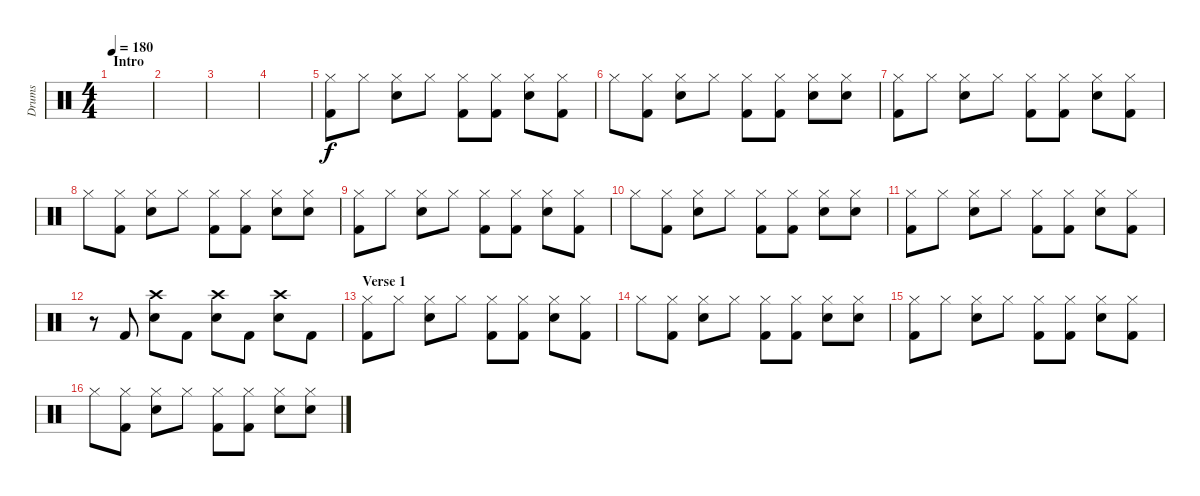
\track ("Drums" "Drums") {instrument percussion}
\staff {score}
\articulation defaults
\ts (4 4)
\section ("" "Intro")
\tempo 180
\clef neutral
\ks c
|
|
|
|
("Hi-Hat (closed)" "Kick (hit) 2").8 "Hi-Hat (closed)".8 ("Hi-Hat (closed)" "Snare (hit) 2").8 "Hi-Hat (closed)".8 ("Hi-Hat (closed)" "Kick (hit) 2").8 ("Hi-Hat (closed)" "Kick (hit) 2").8 ("Hi-Hat (closed)" "Snare (hit) 2").8 ("Hi-Hat (closed)" "Kick (hit) 2").8 |
"Hi-Hat (closed)".8 ("Hi-Hat (closed)" "Kick (hit) 2").8 ("Hi-Hat (closed)" "Snare (hit) 2").8 "Hi-Hat (closed)".8 ("Hi-Hat (closed)" "Kick (hit) 2").8 ("Hi-Hat (closed)" "Kick (hit) 2").8 ("Hi-Hat (closed)" "Snare (hit) 2").8 ("Hi-Hat (closed)" "Snare (hit) 2").8 |
("Hi-Hat (closed)" "Kick (hit) 2").8 "Hi-Hat (closed)".8 ("Hi-Hat (closed)" "Snare (hit) 2").8 "Hi-Hat (closed)".8 ("Hi-Hat (closed)" "Kick (hit) 2").8 ("Hi-Hat (closed)" "Kick (hit) 2").8 ("Hi-Hat (closed)" "Snare (hit) 2").8 ("Hi-Hat (closed)" "Kick (hit) 2").8 |
"Hi-Hat (closed)".8 ("Hi-Hat (closed)" "Kick (hit) 2").8 ("Hi-Hat (closed)" "Snare (hit) 2").8 "Hi-Hat (closed)".8 ("Hi-Hat (closed)" "Kick (hit) 2").8 ("Hi-Hat (closed)" "Kick (hit) 2").8 ("Hi-Hat (closed)" "Snare (hit) 2").8 ("Hi-Hat (closed)" "Snare (hit) 2").8 |
("Hi-Hat (closed)" "Kick (hit) 2").8 "Hi-Hat (closed)".8 ("Hi-Hat (closed)" "Snare (hit) 2").8 "Hi-Hat (closed)".8 ("Hi-Hat (closed)" "Kick (hit) 2").8 ("Hi-Hat (closed)" "Kick (hit) 2").8 ("Hi-Hat (closed)" "Snare (hit) 2").8 ("Hi-Hat (closed)" "Kick (hit) 2").8 |
"Hi-Hat (closed)".8 ("Hi-Hat (closed)" "Kick (hit) 2").8 ("Hi-Hat (closed)" "Snare (hit) 2").8 "Hi-Hat (closed)".8 ("Hi-Hat (closed)" "Kick (hit) 2").8 ("Hi-Hat (closed)" "Kick (hit) 2").8 ("Hi-Hat (closed)" "Snare (hit) 2").8 ("Hi-Hat (closed)" "Snare (hit) 2").8 |
("Hi-Hat (closed)" "Kick (hit) 2").8 "Hi-Hat (closed)".8 ("Hi-Hat (closed)" "Snare (hit) 2").8 "Hi-Hat (closed)".8 ("Hi-Hat (closed)" "Kick (hit) 2").8 ("Hi-Hat (closed)" "Kick (hit) 2").8 ("Hi-Hat (closed)" "Snare (hit) 2").8 ("Hi-Hat (closed)" "Kick (hit) 2").8 |
r.8 "Kick (hit) 2".8 ("Crash high (hit)" "Snare (hit) 2").8 "Kick (hit) 2".8 ("Crash high (hit)" "Snare (hit) 2").8 "Kick (hit) 2".8 ("Crash high (hit)" "Snare (hit) 2").8 "Kick (hit) 2".8 |
\section ("" "Verse 1")
("Hi-Hat (closed)" "Kick (hit) 2").8 "Hi-Hat (closed)".8 ("Hi-Hat (closed)" "Snare (hit) 2").8 "Hi-Hat (closed)".8 ("Hi-Hat (closed)" "Kick (hit) 2").8 ("Hi-Hat (closed)" "Kick (hit) 2").8 ("Hi-Hat (closed)" "Snare (hit) 2").8 ("Hi-Hat (closed)" "Kick (hit) 2").8 |
"Hi-Hat (closed)".8 ("Hi-Hat (closed)" "Kick (hit) 2").8 ("Hi-Hat (closed)" "Snare (hit) 2").8 "Hi-Hat (closed)".8 ("Hi-Hat (closed)" "Kick (hit) 2").8 ("Hi-Hat (closed)" "Kick (hit) 2").8 ("Hi-Hat (closed)" "Snare (hit) 2").8 ("Hi-Hat (closed)" "Snare (hit) 2").8 |
("Hi-Hat (closed)" "Kick (hit) 2").8 "Hi-Hat (closed)".8 ("Hi-Hat (closed)" "Snare (hit) 2").8 "Hi-Hat (closed)".8 ("Hi-Hat (closed)" "Kick (hit) 2").8 ("Hi-Hat (closed)" "Kick (hit) 2").8 ("Hi-Hat (closed)" "Snare (hit) 2").8 ("Hi-Hat (closed)" "Kick (hit) 2").8 |
"Hi-Hat (closed)".8 ("Hi-Hat (closed)" "Kick (hit) 2").8 ("Hi-Hat (closed)" "Snare (hit) 2").8 "Hi-Hat (closed)".8 ("Hi-Hat (closed)" "Kick (hit) 2").8 ("Hi-Hat (closed)" "Kick (hit) 2").8 ("Hi-Hat (closed)" "Snare (hit) 2").8 ("Hi-Hat (closed)" "Snare (hit) 2").8
